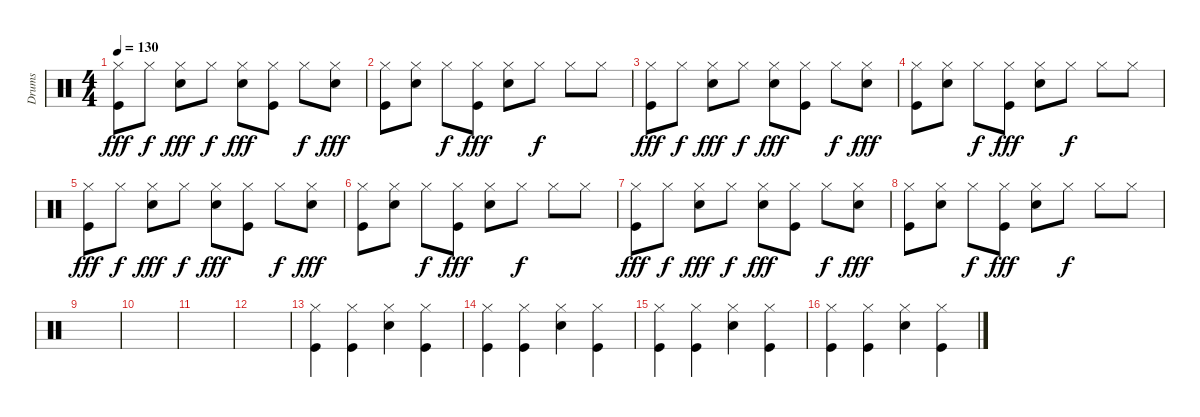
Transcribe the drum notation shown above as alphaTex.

\track ("Drums" "Drums") {instrument percussion}
\staff {score}
\articulation defaults
\ts (4 4)
\tempo 130
\clef neutral
\ks c
("Kick (hit)" "Hi-Hat (closed)").8{dy fff} "Hi-Hat (closed)".8{dy f} ("Snare (hit) 2" "Hi-Hat (closed)").8{dy fff} "Hi-Hat (closed)".8{dy f} ("Snare (hit) 2" "Hi-Hat (closed)").8{dy fff} ("Kick (hit)" "Hi-Hat (closed)").8 "Hi-Hat (closed)".8{dy f} ("Snare (hit) 2" "Hi-Hat (closed)").8{dy fff} |
("Kick (hit)" "Hi-Hat (closed)").8 ("Snare (hit) 2" "Hi-Hat (closed)").8 "Hi-Hat (closed)".8{dy f} ("Kick (hit)" "Hi-Hat (closed)").8{dy fff} ("Snare (hit) 2" "Hi-Hat (closed)").8 "Hi-Hat (closed)".8{dy f} "Hi-Hat (closed)".8 "Hi-Hat (closed)".8 |
("Kick (hit)" "Hi-Hat (closed)").8{dy fff} "Hi-Hat (closed)".8{dy f} ("Snare (hit) 2" "Hi-Hat (closed)").8{dy fff} "Hi-Hat (closed)".8{dy f} ("Snare (hit) 2" "Hi-Hat (closed)").8{dy fff} ("Kick (hit)" "Hi-Hat (closed)").8 "Hi-Hat (closed)".8{dy f} ("Snare (hit) 2" "Hi-Hat (closed)").8{dy fff} |
("Kick (hit)" "Hi-Hat (closed)").8 ("Snare (hit) 2" "Hi-Hat (closed)").8 "Hi-Hat (closed)".8{dy f} ("Kick (hit)" "Hi-Hat (closed)").8{dy fff} ("Snare (hit) 2" "Hi-Hat (closed)").8 "Hi-Hat (closed)".8{dy f} "Hi-Hat (closed)".8 "Hi-Hat (closed)".8 |
("Kick (hit)" "Hi-Hat (closed)").8{dy fff} "Hi-Hat (closed)".8{dy f} ("Snare (hit) 2" "Hi-Hat (closed)").8{dy fff} "Hi-Hat (closed)".8{dy f} ("Snare (hit) 2" "Hi-Hat (closed)").8{dy fff} ("Kick (hit)" "Hi-Hat (closed)").8 "Hi-Hat (closed)".8{dy f} ("Snare (hit) 2" "Hi-Hat (closed)").8{dy fff} |
("Kick (hit)" "Hi-Hat (closed)").8 ("Snare (hit) 2" "Hi-Hat (closed)").8 "Hi-Hat (closed)".8{dy f} ("Kick (hit)" "Hi-Hat (closed)").8{dy fff} ("Snare (hit) 2" "Hi-Hat (closed)").8 "Hi-Hat (closed)".8{dy f} "Hi-Hat (closed)".8 "Hi-Hat (closed)".8 |
("Kick (hit)" "Hi-Hat (closed)").8{dy fff} "Hi-Hat (closed)".8{dy f} ("Snare (hit) 2" "Hi-Hat (closed)").8{dy fff} "Hi-Hat (closed)".8{dy f} ("Snare (hit) 2" "Hi-Hat (closed)").8{dy fff} ("Kick (hit)" "Hi-Hat (closed)").8 "Hi-Hat (closed)".8{dy f} ("Snare (hit) 2" "Hi-Hat (closed)").8{dy fff} |
("Kick (hit)" "Hi-Hat (closed)").8 ("Snare (hit) 2" "Hi-Hat (closed)").8 "Hi-Hat (closed)".8{dy f} ("Kick (hit)" "Hi-Hat (closed)").8{dy fff} ("Snare (hit) 2" "Hi-Hat (closed)").8 "Hi-Hat (closed)".8{dy f} "Hi-Hat (closed)".8 "Hi-Hat (closed)".8 |
|
|
|
|
("Kick (hit)" "Hi-Hat (closed)").4 ("Kick (hit)" "Hi-Hat (closed)").4 ("Snare (hit) 2" "Hi-Hat (closed)").4 ("Kick (hit)" "Hi-Hat (closed)").4 |
("Kick (hit)" "Hi-Hat (closed)").4 ("Kick (hit)" "Hi-Hat (closed)").4 ("Snare (hit) 2" "Hi-Hat (closed)").4 ("Kick (hit)" "Hi-Hat (closed)").4 |
("Kick (hit)" "Hi-Hat (closed)").4 ("Kick (hit)" "Hi-Hat (closed)").4 ("Snare (hit) 2" "Hi-Hat (closed)").4 ("Kick (hit)" "Hi-Hat (closed)").4 |
("Kick (hit)" "Hi-Hat (closed)").4 ("Kick (hit)" "Hi-Hat (closed)").4 ("Snare (hit) 2" "Hi-Hat (closed)").4 ("Kick (hit)" "Hi-Hat (closed)").4
